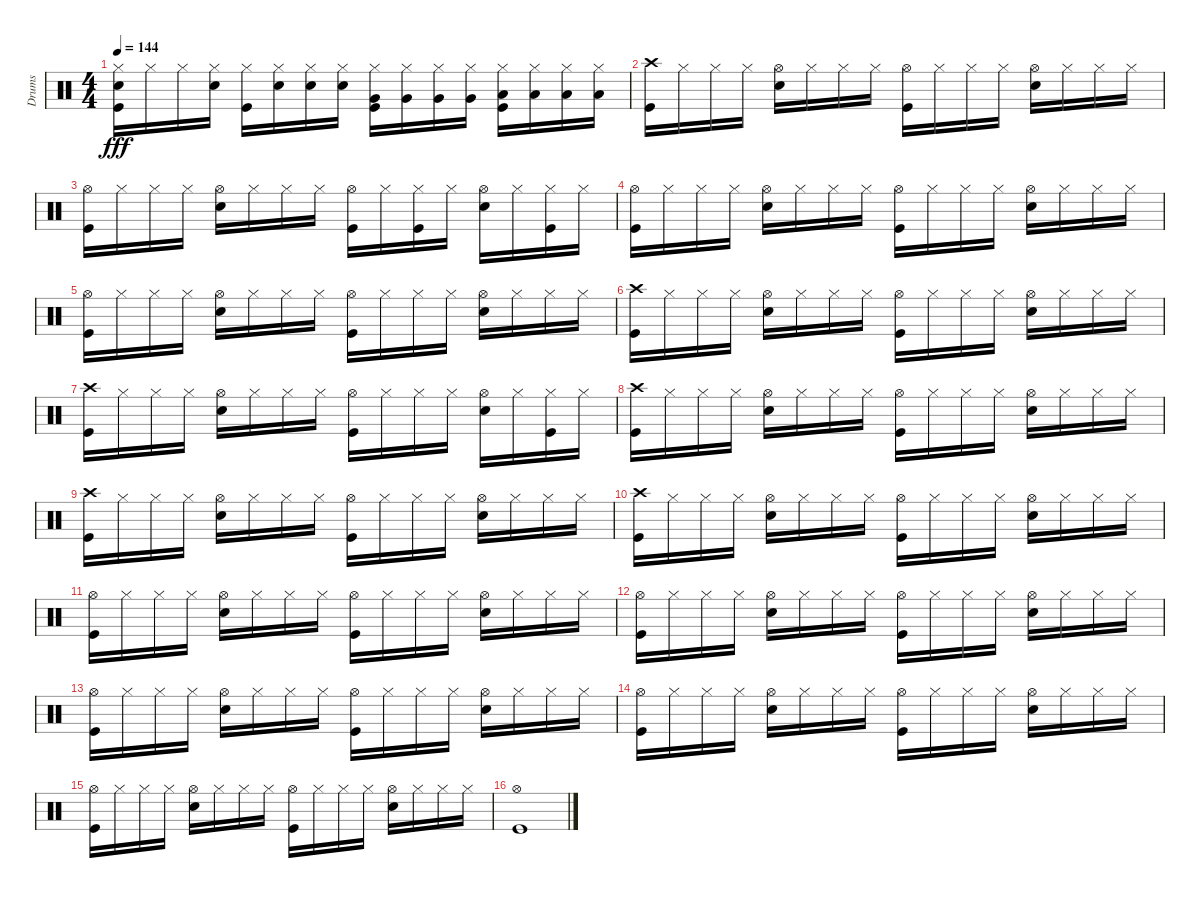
\track ("Drums" "Drums") {instrument percussion}
\staff {score}
\articulation defaults
\ts (4 4)
\tempo 144
\clef neutral
\ks c
("Hi-Hat (closed)" "Snare (hit) 2" "Kick (hit)").16{dy fff} "Hi-Hat (closed)".16 "Hi-Hat (closed)".16 ("Hi-Hat (closed)" "Snare (hit) 2").16 ("Hi-Hat (closed)" "Kick (hit)").16 ("Hi-Hat (closed)" "Snare (hit) 2").16 ("Hi-Hat (closed)" "Snare (hit) 2").16 ("Hi-Hat (closed)" "Snare (hit) 2").16 ("Hi-Hat (closed)" "Very Low Tom (hit)" "Kick (hit)").16 ("Hi-Hat (closed)" "Very Low Tom (hit)").16 ("Hi-Hat (closed)" "Very Low Tom (hit)").16 ("Hi-Hat (closed)" "Very Low Tom (hit)").16 ("Hi-Hat (closed)" "Low Floor Tom (hit)" "Kick (hit)").16 ("Hi-Hat (closed)" "Low Floor Tom (hit)").16 ("Hi-Hat (closed)" "Low Floor Tom (hit)").16 ("Hi-Hat (closed)" "Low Floor Tom (hit)").16 |
("Crash high (hit)" "Kick (hit)").16 "Hi-Hat (closed)".16 "Hi-Hat (closed)".16 "Hi-Hat (closed)".16 ("Hi-Hat (open)" "Snare (hit) 2").16 "Hi-Hat (closed)".16 "Hi-Hat (closed)".16 "Hi-Hat (closed)".16 ("Hi-Hat (open)" "Kick (hit)").16 "Hi-Hat (closed)".16 "Hi-Hat (closed)".16 "Hi-Hat (closed)".16 ("Hi-Hat (open)" "Snare (hit) 2").16 "Hi-Hat (closed)".16 "Hi-Hat (closed)".16 "Hi-Hat (closed)".16 |
("Hi-Hat (open)" "Kick (hit)").16 "Hi-Hat (closed)".16 "Hi-Hat (closed)".16 "Hi-Hat (closed)".16 ("Hi-Hat (open)" "Snare (hit) 2").16 "Hi-Hat (closed)".16 "Hi-Hat (closed)".16 "Hi-Hat (closed)".16 ("Hi-Hat (open)" "Kick (hit)").16 "Hi-Hat (closed)".16 ("Hi-Hat (closed)" "Kick (hit)").16 "Hi-Hat (closed)".16 ("Hi-Hat (open)" "Snare (hit) 2").16 "Hi-Hat (closed)".16 ("Hi-Hat (closed)" "Kick (hit)").16 "Hi-Hat (closed)".16 |
("Hi-Hat (open)" "Kick (hit)").16 "Hi-Hat (closed)".16 "Hi-Hat (closed)".16 "Hi-Hat (closed)".16 ("Hi-Hat (open)" "Snare (hit) 2").16 "Hi-Hat (closed)".16 "Hi-Hat (closed)".16 "Hi-Hat (closed)".16 ("Hi-Hat (open)" "Kick (hit)").16 "Hi-Hat (closed)".16 "Hi-Hat (closed)".16 "Hi-Hat (closed)".16 ("Hi-Hat (open)" "Snare (hit) 2").16 "Hi-Hat (closed)".16 "Hi-Hat (closed)".16 "Hi-Hat (closed)".16 |
("Hi-Hat (open)" "Kick (hit)").16 "Hi-Hat (closed)".16 "Hi-Hat (closed)".16 "Hi-Hat (closed)".16 ("Hi-Hat (open)" "Snare (hit) 2").16 "Hi-Hat (closed)".16 "Hi-Hat (closed)".16 "Hi-Hat (closed)".16 ("Hi-Hat (open)" "Kick (hit)").16 "Hi-Hat (closed)".16 "Hi-Hat (closed)".16 "Hi-Hat (closed)".16 ("Hi-Hat (open)" "Snare (hit) 2").16 "Hi-Hat (closed)".16 "Hi-Hat (closed)".16 "Hi-Hat (closed)".16 |
("Crash high (hit)" "Kick (hit)").16 "Hi-Hat (closed)".16 "Hi-Hat (closed)".16 "Hi-Hat (closed)".16 ("Hi-Hat (open)" "Snare (hit) 2").16 "Hi-Hat (closed)".16 "Hi-Hat (closed)".16 "Hi-Hat (closed)".16 ("Hi-Hat (open)" "Kick (hit)").16 "Hi-Hat (closed)".16 "Hi-Hat (closed)".16 "Hi-Hat (closed)".16 ("Hi-Hat (open)" "Snare (hit) 2").16 "Hi-Hat (closed)".16 "Hi-Hat (closed)".16 "Hi-Hat (closed)".16 |
("Crash high (hit)" "Kick (hit)").16 "Hi-Hat (closed)".16 "Hi-Hat (closed)".16 "Hi-Hat (closed)".16 ("Hi-Hat (open)" "Snare (hit) 2").16 "Hi-Hat (closed)".16 "Hi-Hat (closed)".16 "Hi-Hat (closed)".16 ("Hi-Hat (open)" "Kick (hit)").16 "Hi-Hat (closed)".16 "Hi-Hat (closed)".16 "Hi-Hat (closed)".16 ("Hi-Hat (open)" "Snare (hit) 2").16 "Hi-Hat (closed)".16 ("Hi-Hat (closed)" "Kick (hit)").16 "Hi-Hat (closed)".16 |
("Crash high (hit)" "Kick (hit)").16 "Hi-Hat (closed)".16 "Hi-Hat (closed)".16 "Hi-Hat (closed)".16 ("Hi-Hat (open)" "Snare (hit) 2").16 "Hi-Hat (closed)".16 "Hi-Hat (closed)".16 "Hi-Hat (closed)".16 ("Hi-Hat (open)" "Kick (hit)").16 "Hi-Hat (closed)".16 "Hi-Hat (closed)".16 "Hi-Hat (closed)".16 ("Hi-Hat (open)" "Snare (hit) 2").16 "Hi-Hat (closed)".16 "Hi-Hat (closed)".16 "Hi-Hat (closed)".16 |
("Crash high (hit)" "Kick (hit)").16 "Hi-Hat (closed)".16 "Hi-Hat (closed)".16 "Hi-Hat (closed)".16 ("Hi-Hat (open)" "Snare (hit) 2").16 "Hi-Hat (closed)".16 "Hi-Hat (closed)".16 "Hi-Hat (closed)".16 ("Hi-Hat (open)" "Kick (hit)").16 "Hi-Hat (closed)".16 "Hi-Hat (closed)".16 "Hi-Hat (closed)".16 ("Hi-Hat (open)" "Snare (hit) 2").16 "Hi-Hat (closed)".16 "Hi-Hat (closed)".16 "Hi-Hat (closed)".16 |
("Crash high (hit)" "Kick (hit)").16 "Hi-Hat (closed)".16 "Hi-Hat (closed)".16 "Hi-Hat (closed)".16 ("Hi-Hat (open)" "Snare (hit) 2").16 "Hi-Hat (closed)".16 "Hi-Hat (closed)".16 "Hi-Hat (closed)".16 ("Hi-Hat (open)" "Kick (hit)").16 "Hi-Hat (closed)".16 "Hi-Hat (closed)".16 "Hi-Hat (closed)".16 ("Hi-Hat (open)" "Snare (hit) 2").16 "Hi-Hat (closed)".16 "Hi-Hat (closed)".16 "Hi-Hat (closed)".16 |
("Hi-Hat (open)" "Kick (hit)").16 "Hi-Hat (closed)".16 "Hi-Hat (closed)".16 "Hi-Hat (closed)".16 ("Hi-Hat (open)" "Snare (hit) 2").16 "Hi-Hat (closed)".16 "Hi-Hat (closed)".16 "Hi-Hat (closed)".16 ("Hi-Hat (open)" "Kick (hit)").16 "Hi-Hat (closed)".16 "Hi-Hat (closed)".16 "Hi-Hat (closed)".16 ("Hi-Hat (open)" "Snare (hit) 2").16 "Hi-Hat (closed)".16 "Hi-Hat (closed)".16 "Hi-Hat (closed)".16 |
("Hi-Hat (open)" "Kick (hit)").16 "Hi-Hat (closed)".16 "Hi-Hat (closed)".16 "Hi-Hat (closed)".16 ("Hi-Hat (open)" "Snare (hit) 2").16 "Hi-Hat (closed)".16 "Hi-Hat (closed)".16 "Hi-Hat (closed)".16 ("Hi-Hat (open)" "Kick (hit)").16 "Hi-Hat (closed)".16 "Hi-Hat (closed)".16 "Hi-Hat (closed)".16 ("Hi-Hat (open)" "Snare (hit) 2").16 "Hi-Hat (closed)".16 "Hi-Hat (closed)".16 "Hi-Hat (closed)".16 |
("Hi-Hat (open)" "Kick (hit)").16 "Hi-Hat (closed)".16 "Hi-Hat (closed)".16 "Hi-Hat (closed)".16 ("Hi-Hat (open)" "Snare (hit) 2").16 "Hi-Hat (closed)".16 "Hi-Hat (closed)".16 "Hi-Hat (closed)".16 ("Hi-Hat (open)" "Kick (hit)").16 "Hi-Hat (closed)".16 "Hi-Hat (closed)".16 "Hi-Hat (closed)".16 ("Hi-Hat (open)" "Snare (hit) 2").16 "Hi-Hat (closed)".16 "Hi-Hat (closed)".16 "Hi-Hat (closed)".16 |
("Hi-Hat (open)" "Kick (hit)").16 "Hi-Hat (closed)".16 "Hi-Hat (closed)".16 "Hi-Hat (closed)".16 ("Hi-Hat (open)" "Snare (hit) 2").16 "Hi-Hat (closed)".16 "Hi-Hat (closed)".16 "Hi-Hat (closed)".16 ("Hi-Hat (open)" "Kick (hit)").16 "Hi-Hat (closed)".16 "Hi-Hat (closed)".16 "Hi-Hat (closed)".16 ("Hi-Hat (open)" "Snare (hit) 2").16 "Hi-Hat (closed)".16 "Hi-Hat (closed)".16 "Hi-Hat (closed)".16 |
("Hi-Hat (open)" "Kick (hit)").16 "Hi-Hat (closed)".16 "Hi-Hat (closed)".16 "Hi-Hat (closed)".16 ("Hi-Hat (open)" "Snare (hit) 2").16 "Hi-Hat (closed)".16 "Hi-Hat (closed)".16 "Hi-Hat (closed)".16 ("Hi-Hat (open)" "Kick (hit)").16 "Hi-Hat (closed)".16 "Hi-Hat (closed)".16 "Hi-Hat (closed)".16 ("Hi-Hat (open)" "Snare (hit) 2").16 "Hi-Hat (closed)".16 "Hi-Hat (closed)".16 "Hi-Hat (closed)".16 |
("Hi-Hat (open)" "Kick (hit)").1
